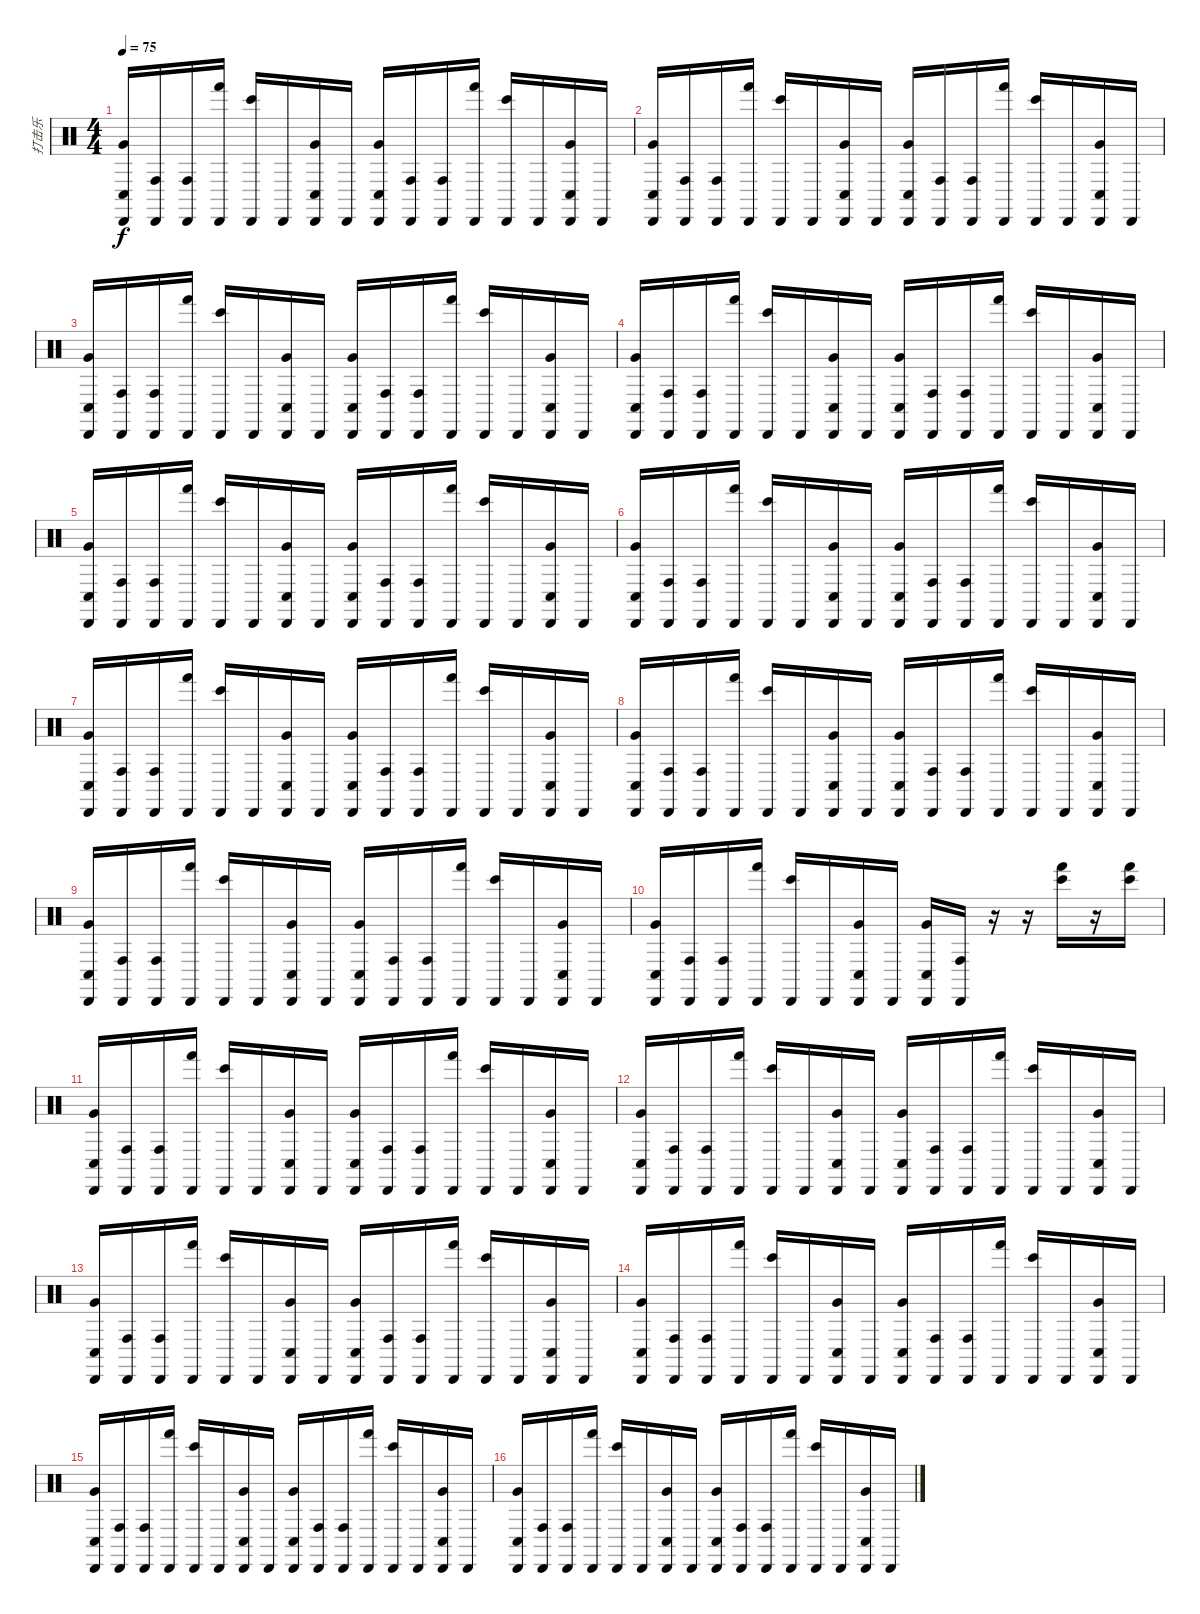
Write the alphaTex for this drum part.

\track ("打击乐" "打击乐") {instrument percussion}
\staff {score}
\articulation defaults
\ts (4 4)
\tempo 75
\clef neutral
\ks c
("Conga low (hit)" "Very Low Tom (hit)" "Cabasa (hit)").16{dy f} ("Conga high (hit)" "Cabasa (hit)").16 ("Conga high (hit)" "Cabasa (hit)").16 ("Hand (hit)" "Cabasa (hit)").16 ("Bongo High (hit)" "Cabasa (hit)").16 "Cabasa (hit)".16 ("Conga low (hit)" "Very Low Tom (hit)" "Cabasa (hit)").16 "Cabasa (hit)".16 ("Conga low (hit)" "Very Low Tom (hit)" "Cabasa (hit)").16 ("Conga high (hit)" "Cabasa (hit)").16 ("Conga high (hit)" "Cabasa (hit)").16 ("Hand (hit)" "Cabasa (hit)").16 ("Bongo High (hit)" "Cabasa (hit)").16 "Cabasa (hit)".16 ("Conga low (hit)" "Very Low Tom (hit)" "Cabasa (hit)").16 "Cabasa (hit)".16 |
("Conga low (hit)" "Very Low Tom (hit)" "Cabasa (hit)").16 ("Conga high (hit)" "Cabasa (hit)").16 ("Conga high (hit)" "Cabasa (hit)").16 ("Hand (hit)" "Cabasa (hit)").16 ("Bongo High (hit)" "Cabasa (hit)").16 "Cabasa (hit)".16 ("Conga low (hit)" "Very Low Tom (hit)" "Cabasa (hit)").16 "Cabasa (hit)".16 ("Conga low (hit)" "Very Low Tom (hit)" "Cabasa (hit)").16 ("Conga high (hit)" "Cabasa (hit)").16 ("Conga high (hit)" "Cabasa (hit)").16 ("Hand (hit)" "Cabasa (hit)").16 ("Bongo High (hit)" "Cabasa (hit)").16 "Cabasa (hit)".16 ("Conga low (hit)" "Very Low Tom (hit)" "Cabasa (hit)").16 "Cabasa (hit)".16 |
("Conga low (hit)" "Very Low Tom (hit)" "Cabasa (hit)").16 ("Conga high (hit)" "Cabasa (hit)").16 ("Conga high (hit)" "Cabasa (hit)").16 ("Hand (hit)" "Cabasa (hit)").16 ("Bongo High (hit)" "Cabasa (hit)").16 "Cabasa (hit)".16 ("Conga low (hit)" "Very Low Tom (hit)" "Cabasa (hit)").16 "Cabasa (hit)".16 ("Conga low (hit)" "Very Low Tom (hit)" "Cabasa (hit)").16 ("Conga high (hit)" "Cabasa (hit)").16 ("Conga high (hit)" "Cabasa (hit)").16 ("Hand (hit)" "Cabasa (hit)").16 ("Bongo High (hit)" "Cabasa (hit)").16 "Cabasa (hit)".16 ("Conga low (hit)" "Very Low Tom (hit)" "Cabasa (hit)").16 "Cabasa (hit)".16 |
("Conga low (hit)" "Very Low Tom (hit)" "Cabasa (hit)").16 ("Conga high (hit)" "Cabasa (hit)").16 ("Conga high (hit)" "Cabasa (hit)").16 ("Hand (hit)" "Cabasa (hit)").16 ("Bongo High (hit)" "Cabasa (hit)").16 "Cabasa (hit)".16 ("Conga low (hit)" "Very Low Tom (hit)" "Cabasa (hit)").16 "Cabasa (hit)".16 ("Conga low (hit)" "Very Low Tom (hit)" "Cabasa (hit)").16 ("Conga high (hit)" "Cabasa (hit)").16 ("Conga high (hit)" "Cabasa (hit)").16 ("Hand (hit)" "Cabasa (hit)").16 ("Bongo High (hit)" "Cabasa (hit)").16 "Cabasa (hit)".16 ("Conga low (hit)" "Very Low Tom (hit)" "Cabasa (hit)").16 "Cabasa (hit)".16 |
("Conga low (hit)" "Very Low Tom (hit)" "Cabasa (hit)").16 ("Conga high (hit)" "Cabasa (hit)").16 ("Conga high (hit)" "Cabasa (hit)").16 ("Hand (hit)" "Cabasa (hit)").16 ("Bongo High (hit)" "Cabasa (hit)").16 "Cabasa (hit)".16 ("Conga low (hit)" "Very Low Tom (hit)" "Cabasa (hit)").16 "Cabasa (hit)".16 ("Conga low (hit)" "Very Low Tom (hit)" "Cabasa (hit)").16 ("Conga high (hit)" "Cabasa (hit)").16 ("Conga high (hit)" "Cabasa (hit)").16 ("Hand (hit)" "Cabasa (hit)").16 ("Bongo High (hit)" "Cabasa (hit)").16 "Cabasa (hit)".16 ("Conga low (hit)" "Very Low Tom (hit)" "Cabasa (hit)").16 "Cabasa (hit)".16 |
("Conga low (hit)" "Very Low Tom (hit)" "Cabasa (hit)").16 ("Conga high (hit)" "Cabasa (hit)").16 ("Conga high (hit)" "Cabasa (hit)").16 ("Hand (hit)" "Cabasa (hit)").16 ("Bongo High (hit)" "Cabasa (hit)").16 "Cabasa (hit)".16 ("Conga low (hit)" "Very Low Tom (hit)" "Cabasa (hit)").16 "Cabasa (hit)".16 ("Conga low (hit)" "Very Low Tom (hit)" "Cabasa (hit)").16 ("Conga high (hit)" "Cabasa (hit)").16 ("Conga high (hit)" "Cabasa (hit)").16 ("Hand (hit)" "Cabasa (hit)").16 ("Bongo High (hit)" "Cabasa (hit)").16 "Cabasa (hit)".16 ("Conga low (hit)" "Very Low Tom (hit)" "Cabasa (hit)").16 "Cabasa (hit)".16 |
("Conga low (hit)" "Very Low Tom (hit)" "Cabasa (hit)").16 ("Conga high (hit)" "Cabasa (hit)").16 ("Conga high (hit)" "Cabasa (hit)").16 ("Hand (hit)" "Cabasa (hit)").16 ("Bongo High (hit)" "Cabasa (hit)").16 "Cabasa (hit)".16 ("Conga low (hit)" "Very Low Tom (hit)" "Cabasa (hit)").16 "Cabasa (hit)".16 ("Conga low (hit)" "Very Low Tom (hit)" "Cabasa (hit)").16 ("Conga high (hit)" "Cabasa (hit)").16 ("Conga high (hit)" "Cabasa (hit)").16 ("Hand (hit)" "Cabasa (hit)").16 ("Bongo High (hit)" "Cabasa (hit)").16 "Cabasa (hit)".16 ("Conga low (hit)" "Very Low Tom (hit)" "Cabasa (hit)").16 "Cabasa (hit)".16 |
("Conga low (hit)" "Very Low Tom (hit)" "Cabasa (hit)").16 ("Conga high (hit)" "Cabasa (hit)").16 ("Conga high (hit)" "Cabasa (hit)").16 ("Hand (hit)" "Cabasa (hit)").16 ("Bongo High (hit)" "Cabasa (hit)").16 "Cabasa (hit)".16 ("Conga low (hit)" "Very Low Tom (hit)" "Cabasa (hit)").16 "Cabasa (hit)".16 ("Conga low (hit)" "Very Low Tom (hit)" "Cabasa (hit)").16 ("Conga high (hit)" "Cabasa (hit)").16 ("Conga high (hit)" "Cabasa (hit)").16 ("Hand (hit)" "Cabasa (hit)").16 ("Bongo High (hit)" "Cabasa (hit)").16 "Cabasa (hit)".16 ("Conga low (hit)" "Very Low Tom (hit)" "Cabasa (hit)").16 "Cabasa (hit)".16 |
("Conga low (hit)" "Very Low Tom (hit)" "Cabasa (hit)").16 ("Conga high (hit)" "Cabasa (hit)").16 ("Conga high (hit)" "Cabasa (hit)").16 ("Hand (hit)" "Cabasa (hit)").16 ("Bongo High (hit)" "Cabasa (hit)").16 "Cabasa (hit)".16 ("Conga low (hit)" "Very Low Tom (hit)" "Cabasa (hit)").16 "Cabasa (hit)".16 ("Conga low (hit)" "Very Low Tom (hit)" "Cabasa (hit)").16 ("Conga high (hit)" "Cabasa (hit)").16 ("Conga high (hit)" "Cabasa (hit)").16 ("Hand (hit)" "Cabasa (hit)").16 ("Bongo High (hit)" "Cabasa (hit)").16 "Cabasa (hit)".16 ("Conga low (hit)" "Very Low Tom (hit)" "Cabasa (hit)").16 "Cabasa (hit)".16 |
("Conga low (hit)" "Very Low Tom (hit)" "Cabasa (hit)").16 ("Conga high (hit)" "Cabasa (hit)").16 ("Conga high (hit)" "Cabasa (hit)").16 ("Hand (hit)" "Cabasa (hit)").16 ("Bongo High (hit)" "Cabasa (hit)").16 "Cabasa (hit)".16 ("Conga low (hit)" "Very Low Tom (hit)" "Cabasa (hit)").16 "Cabasa (hit)".16 ("Conga low (hit)" "Very Low Tom (hit)" "Cabasa (hit)").16 ("Conga high (hit)" "Cabasa (hit)").16 r.16 r.16 ("Hand (hit)" "Bongo High (hit)").16 r.16 ("Bongo High (hit)" "Hand (hit)").16 |
("Conga low (hit)" "Very Low Tom (hit)" "Cabasa (hit)").16 ("Conga high (hit)" "Cabasa (hit)").16 ("Conga high (hit)" "Cabasa (hit)").16 ("Hand (hit)" "Cabasa (hit)").16 ("Bongo High (hit)" "Cabasa (hit)").16 "Cabasa (hit)".16 ("Conga low (hit)" "Very Low Tom (hit)" "Cabasa (hit)").16 "Cabasa (hit)".16 ("Conga low (hit)" "Very Low Tom (hit)" "Cabasa (hit)").16 ("Conga high (hit)" "Cabasa (hit)").16 ("Conga high (hit)" "Cabasa (hit)").16 ("Hand (hit)" "Cabasa (hit)").16 ("Bongo High (hit)" "Cabasa (hit)").16 "Cabasa (hit)".16 ("Conga low (hit)" "Very Low Tom (hit)" "Cabasa (hit)").16 "Cabasa (hit)".16 |
("Conga low (hit)" "Very Low Tom (hit)" "Cabasa (hit)").16 ("Conga high (hit)" "Cabasa (hit)").16 ("Conga high (hit)" "Cabasa (hit)").16 ("Hand (hit)" "Cabasa (hit)").16 ("Bongo High (hit)" "Cabasa (hit)").16 "Cabasa (hit)".16 ("Conga low (hit)" "Very Low Tom (hit)" "Cabasa (hit)").16 "Cabasa (hit)".16 ("Conga low (hit)" "Very Low Tom (hit)" "Cabasa (hit)").16 ("Conga high (hit)" "Cabasa (hit)").16 ("Conga high (hit)" "Cabasa (hit)").16 ("Hand (hit)" "Cabasa (hit)").16 ("Bongo High (hit)" "Cabasa (hit)").16 "Cabasa (hit)".16 ("Conga low (hit)" "Very Low Tom (hit)" "Cabasa (hit)").16 "Cabasa (hit)".16 |
("Conga low (hit)" "Very Low Tom (hit)" "Cabasa (hit)").16 ("Conga high (hit)" "Cabasa (hit)").16 ("Conga high (hit)" "Cabasa (hit)").16 ("Hand (hit)" "Cabasa (hit)").16 ("Bongo High (hit)" "Cabasa (hit)").16 "Cabasa (hit)".16 ("Conga low (hit)" "Very Low Tom (hit)" "Cabasa (hit)").16 "Cabasa (hit)".16 ("Conga low (hit)" "Very Low Tom (hit)" "Cabasa (hit)").16 ("Conga high (hit)" "Cabasa (hit)").16 ("Conga high (hit)" "Cabasa (hit)").16 ("Hand (hit)" "Cabasa (hit)").16 ("Bongo High (hit)" "Cabasa (hit)").16 "Cabasa (hit)".16 ("Conga low (hit)" "Very Low Tom (hit)" "Cabasa (hit)").16 "Cabasa (hit)".16 |
("Conga low (hit)" "Very Low Tom (hit)" "Cabasa (hit)").16 ("Conga high (hit)" "Cabasa (hit)").16 ("Conga high (hit)" "Cabasa (hit)").16 ("Hand (hit)" "Cabasa (hit)").16 ("Bongo High (hit)" "Cabasa (hit)").16 "Cabasa (hit)".16 ("Conga low (hit)" "Very Low Tom (hit)" "Cabasa (hit)").16 "Cabasa (hit)".16 ("Conga low (hit)" "Very Low Tom (hit)" "Cabasa (hit)").16 ("Conga high (hit)" "Cabasa (hit)").16 ("Conga high (hit)" "Cabasa (hit)").16 ("Hand (hit)" "Cabasa (hit)").16 ("Bongo High (hit)" "Cabasa (hit)").16 "Cabasa (hit)".16 ("Conga low (hit)" "Very Low Tom (hit)" "Cabasa (hit)").16 "Cabasa (hit)".16 |
("Conga low (hit)" "Very Low Tom (hit)" "Cabasa (hit)").16 ("Conga high (hit)" "Cabasa (hit)").16 ("Conga high (hit)" "Cabasa (hit)").16 ("Hand (hit)" "Cabasa (hit)").16 ("Bongo High (hit)" "Cabasa (hit)").16 "Cabasa (hit)".16 ("Conga low (hit)" "Very Low Tom (hit)" "Cabasa (hit)").16 "Cabasa (hit)".16 ("Conga low (hit)" "Very Low Tom (hit)" "Cabasa (hit)").16 ("Conga high (hit)" "Cabasa (hit)").16 ("Conga high (hit)" "Cabasa (hit)").16 ("Hand (hit)" "Cabasa (hit)").16 ("Bongo High (hit)" "Cabasa (hit)").16 "Cabasa (hit)".16 ("Conga low (hit)" "Very Low Tom (hit)" "Cabasa (hit)").16 "Cabasa (hit)".16 |
("Conga low (hit)" "Very Low Tom (hit)" "Cabasa (hit)").16 ("Conga high (hit)" "Cabasa (hit)").16 ("Conga high (hit)" "Cabasa (hit)").16 ("Hand (hit)" "Cabasa (hit)").16 ("Bongo High (hit)" "Cabasa (hit)").16 "Cabasa (hit)".16 ("Conga low (hit)" "Very Low Tom (hit)" "Cabasa (hit)").16 "Cabasa (hit)".16 ("Conga low (hit)" "Very Low Tom (hit)" "Cabasa (hit)").16 ("Conga high (hit)" "Cabasa (hit)").16 ("Conga high (hit)" "Cabasa (hit)").16 ("Hand (hit)" "Cabasa (hit)").16 ("Bongo High (hit)" "Cabasa (hit)").16 "Cabasa (hit)".16 ("Conga low (hit)" "Very Low Tom (hit)" "Cabasa (hit)").16 "Cabasa (hit)".16
